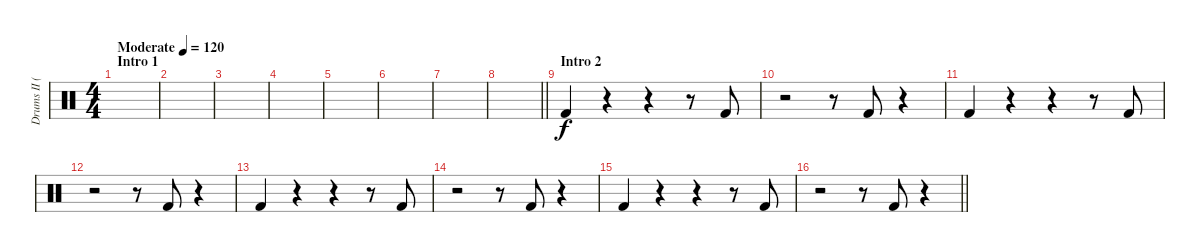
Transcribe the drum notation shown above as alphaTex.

\track ("Drums II (Ruka)" "Drums II (") {instrument percussion}
\staff {score}
\articulation defaults
\ts (4 4)
\section ("" "Intro 1")
\tempo (120 "Moderate")
\clef neutral
\ks c
|
|
|
|
|
|
|
\barLineRight lightlight
|
\section ("" "Intro 2")
"Kick (hit) 2".4 r.4 r.4 r.8 "Kick (hit) 2".8 |
r.2 r.8 "Kick (hit) 2".8 r.4 |
"Kick (hit) 2".4 r.4 r.4 r.8 "Kick (hit) 2".8 |
r.2 r.8 "Kick (hit) 2".8 r.4 |
"Kick (hit) 2".4 r.4 r.4 r.8 "Kick (hit) 2".8 |
r.2 r.8 "Kick (hit) 2".8 r.4 |
"Kick (hit) 2".4 r.4 r.4 r.8 "Kick (hit) 2".8 |
\barLineRight lightlight
r.2 r.8 "Kick (hit) 2".8 r.4
